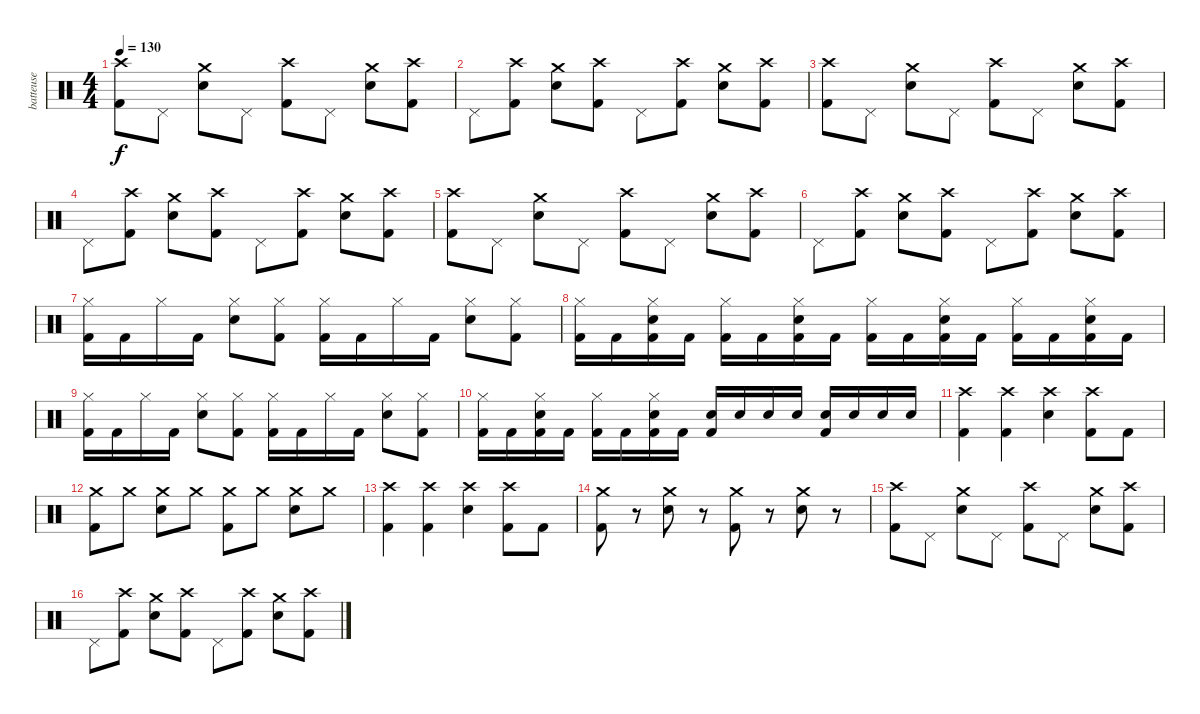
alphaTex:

\track ("batteuse" "batteuse") {instrument percussion}
\staff {score}
\articulation defaults
\ts (4 4)
\tempo 130
\clef neutral
\ks c
("Crash high (hit)" "Kick (hit) 2").8{dy f} "Pedal Hi-Hat (hit)".8 ("Crash medium (hit)" "Snare (hit) 2").8 "Pedal Hi-Hat (hit)".8 ("Crash high (hit)" "Kick (hit) 2").8 "Pedal Hi-Hat (hit)".8 ("Crash medium (hit)" "Snare (hit) 2").8 ("Crash high (hit)" "Kick (hit) 2").8 |
"Pedal Hi-Hat (hit)".8 ("Crash high (hit)" "Kick (hit) 2").8 ("Crash medium (hit)" "Snare (hit) 2").8 ("Crash high (hit)" "Kick (hit) 2").8 "Pedal Hi-Hat (hit)".8 ("Crash high (hit)" "Kick (hit) 2").8 ("Crash medium (hit)" "Snare (hit) 2").8 ("Crash high (hit)" "Kick (hit) 2").8 |
("Crash high (hit)" "Kick (hit) 2").8 "Pedal Hi-Hat (hit)".8 ("Crash medium (hit)" "Snare (hit) 2").8 "Pedal Hi-Hat (hit)".8 ("Crash high (hit)" "Kick (hit) 2").8 "Pedal Hi-Hat (hit)".8 ("Crash medium (hit)" "Snare (hit) 2").8 ("Crash high (hit)" "Kick (hit) 2").8 |
"Pedal Hi-Hat (hit)".8 ("Crash high (hit)" "Kick (hit) 2").8 ("Crash medium (hit)" "Snare (hit) 2").8 ("Crash high (hit)" "Kick (hit) 2").8 "Pedal Hi-Hat (hit)".8 ("Crash high (hit)" "Kick (hit) 2").8 ("Crash medium (hit)" "Snare (hit) 2").8 ("Crash high (hit)" "Kick (hit) 2").8 |
("Crash high (hit)" "Kick (hit) 2").8 "Pedal Hi-Hat (hit)".8 ("Crash medium (hit)" "Snare (hit) 2").8 "Pedal Hi-Hat (hit)".8 ("Crash high (hit)" "Kick (hit) 2").8 "Pedal Hi-Hat (hit)".8 ("Crash medium (hit)" "Snare (hit) 2").8 ("Crash high (hit)" "Kick (hit) 2").8 |
"Pedal Hi-Hat (hit)".8 ("Crash high (hit)" "Kick (hit) 2").8 ("Crash medium (hit)" "Snare (hit) 2").8 ("Crash high (hit)" "Kick (hit) 2").8 "Pedal Hi-Hat (hit)".8 ("Crash high (hit)" "Kick (hit) 2").8 ("Crash medium (hit)" "Snare (hit) 2").8 ("Crash high (hit)" "Kick (hit) 2").8 |
("Kick (hit) 2" "Hi-Hat (closed)").16 "Kick (hit) 2".16 "Hi-Hat (closed)".16 "Kick (hit) 2".16 ("Snare (hit) 2" "Hi-Hat (closed)").8 ("Kick (hit) 2" "Hi-Hat (closed)").8 ("Kick (hit) 2" "Hi-Hat (closed)").16 "Kick (hit) 2".16 "Hi-Hat (closed)".16 "Kick (hit) 2".16 ("Snare (hit) 2" "Hi-Hat (closed)").8 ("Kick (hit) 2" "Hi-Hat (closed)").8 |
("Kick (hit) 2" "Hi-Hat (closed)").16 "Kick (hit) 2".16 ("Snare (hit) 2" "Kick (hit) 2" "Hi-Hat (closed)").16 "Kick (hit) 2".16 ("Kick (hit) 2" "Hi-Hat (closed)").16 "Kick (hit) 2".16 ("Snare (hit) 2" "Kick (hit) 2" "Hi-Hat (closed)").16 "Kick (hit) 2".16 ("Kick (hit) 2" "Hi-Hat (closed)").16 "Kick (hit) 2".16 ("Snare (hit) 2" "Kick (hit) 2" "Hi-Hat (closed)").16 "Kick (hit) 2".16 ("Kick (hit) 2" "Hi-Hat (closed)").16 "Kick (hit) 2".16 ("Snare (hit) 2" "Kick (hit) 2" "Hi-Hat (closed)").16 "Kick (hit) 2".16 |
("Kick (hit) 2" "Hi-Hat (closed)").16 "Kick (hit) 2".16 "Hi-Hat (closed)".16 "Kick (hit) 2".16 ("Snare (hit) 2" "Hi-Hat (closed)").8 ("Kick (hit) 2" "Hi-Hat (closed)").8 ("Kick (hit) 2" "Hi-Hat (closed)").16 "Kick (hit) 2".16 "Hi-Hat (closed)".16 "Kick (hit) 2".16 ("Snare (hit) 2" "Hi-Hat (closed)").8 ("Kick (hit) 2" "Hi-Hat (closed)").8 |
("Kick (hit) 2" "Hi-Hat (closed)").16 "Kick (hit) 2".16 ("Snare (hit) 2" "Kick (hit) 2" "Hi-Hat (closed)").16 "Kick (hit) 2".16 ("Kick (hit) 2" "Hi-Hat (closed)").16 "Kick (hit) 2".16 ("Snare (hit) 2" "Kick (hit) 2" "Hi-Hat (closed)").16 "Kick (hit) 2".16 ("Snare (hit) 2" "Kick (hit) 2").16 "Snare (hit) 2".16 "Snare (hit) 2".16 "Snare (hit) 2".16 ("Snare (hit) 2" "Kick (hit) 2").16 "Snare (hit) 2".16 "Snare (hit) 2".16 "Snare (hit) 2".16 |
("Kick (hit) 2" "Crash high (hit)").4 ("Kick (hit) 2" "Crash high (hit)").4 ("Snare (hit) 2" "Crash high (hit)").4 ("Kick (hit) 2" "Crash high (hit)").8 "Kick (hit) 2".8 |
("Kick (hit) 2" "Crash medium (hit)").8 "Crash medium (hit)".8 ("Snare (hit) 2" "Crash medium (hit)").8 "Crash medium (hit)".8 ("Kick (hit) 2" "Crash medium (hit)").8 "Crash medium (hit)".8 ("Snare (hit) 2" "Crash medium (hit)").8 "Crash medium (hit)".8 |
("Kick (hit) 2" "Crash high (hit)").4 ("Kick (hit) 2" "Crash high (hit)").4 ("Snare (hit) 2" "Crash high (hit)").4 ("Kick (hit) 2" "Crash high (hit)").8 "Kick (hit) 2".8 |
("Kick (hit) 2" "Crash medium (hit)").8 r.8 ("Snare (hit) 2" "Crash medium (hit)").8 r.8 ("Kick (hit) 2" "Crash medium (hit)").8 r.8 ("Snare (hit) 2" "Crash medium (hit)").8 r.8 |
("Crash high (hit)" "Kick (hit) 2").8 "Pedal Hi-Hat (hit)".8 ("Crash medium (hit)" "Snare (hit) 2").8 "Pedal Hi-Hat (hit)".8 ("Crash high (hit)" "Kick (hit) 2").8 "Pedal Hi-Hat (hit)".8 ("Crash medium (hit)" "Snare (hit) 2").8 ("Crash high (hit)" "Kick (hit) 2").8 |
"Pedal Hi-Hat (hit)".8 ("Crash high (hit)" "Kick (hit) 2").8 ("Crash medium (hit)" "Snare (hit) 2").8 ("Crash high (hit)" "Kick (hit) 2").8 "Pedal Hi-Hat (hit)".8 ("Crash high (hit)" "Kick (hit) 2").8 ("Crash medium (hit)" "Snare (hit) 2").8 ("Crash high (hit)" "Kick (hit) 2").8
